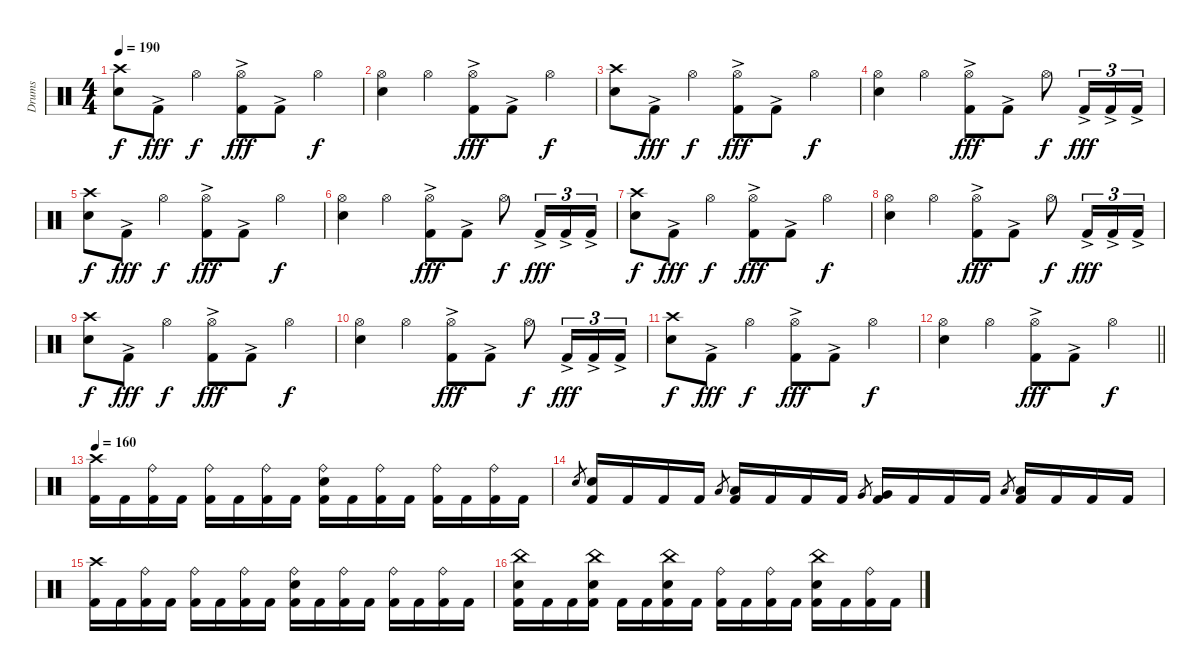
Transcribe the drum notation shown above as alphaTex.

\track ("Drums" "Drums") {instrument percussion}
\staff {score}
\articulation defaults
\ts (4 4)
\tempo 190
\clef neutral
\ks c
("Crash high (hit)" "Snare (hit) 2").8{dy f} "Kick (hit) 2"{ac}.8{dy fff} "Hi-Hat (open)".4{dy f} ("Hi-Hat (open)" "Kick (hit) 2"{ac}).8{dy fff} "Kick (hit) 2"{ac}.8 "Hi-Hat (open)".4{dy f} |
("Hi-Hat (open)" "Snare (hit) 2").4 "Hi-Hat (open)".4 ("Hi-Hat (open)" "Kick (hit) 2"{ac}).8{dy fff} "Kick (hit) 2"{ac}.8 "Hi-Hat (open)".4{dy f} |
("Crash high (hit)" "Snare (hit) 2").8 "Kick (hit) 2"{ac}.8{dy fff} "Hi-Hat (open)".4{dy f} ("Hi-Hat (open)" "Kick (hit) 2"{ac}).8{dy fff} "Kick (hit) 2"{ac}.8 "Hi-Hat (open)".4{dy f} |
("Hi-Hat (open)" "Snare (hit) 2").4 "Hi-Hat (open)".4 ("Hi-Hat (open)" "Kick (hit) 2"{ac}).8{dy fff} "Kick (hit) 2"{ac}.8 "Hi-Hat (open)".8{dy f} "Kick (hit) 2"{ac}.16{tu (3 2) dy fff} "Kick (hit) 2"{ac}.16{tu (3 2)} "Kick (hit) 2"{ac}.16{tu (3 2)} |
("Crash high (hit)" "Snare (hit) 2").8{dy f} "Kick (hit) 2"{ac}.8{dy fff} "Hi-Hat (open)".4{dy f} ("Hi-Hat (open)" "Kick (hit) 2"{ac}).8{dy fff} "Kick (hit) 2"{ac}.8 "Hi-Hat (open)".4{dy f} |
("Hi-Hat (open)" "Snare (hit) 2").4 "Hi-Hat (open)".4 ("Hi-Hat (open)" "Kick (hit) 2"{ac}).8{dy fff} "Kick (hit) 2"{ac}.8 "Hi-Hat (open)".8{dy f} "Kick (hit) 2"{ac}.16{tu (3 2) dy fff} "Kick (hit) 2"{ac}.16{tu (3 2)} "Kick (hit) 2"{ac}.16{tu (3 2)} |
("Crash high (hit)" "Snare (hit) 2").8{dy f} "Kick (hit) 2"{ac}.8{dy fff} "Hi-Hat (open)".4{dy f} ("Hi-Hat (open)" "Kick (hit) 2"{ac}).8{dy fff} "Kick (hit) 2"{ac}.8 "Hi-Hat (open)".4{dy f} |
("Hi-Hat (open)" "Snare (hit) 2").4 "Hi-Hat (open)".4 ("Hi-Hat (open)" "Kick (hit) 2"{ac}).8{dy fff} "Kick (hit) 2"{ac}.8 "Hi-Hat (open)".8{dy f} "Kick (hit) 2"{ac}.16{tu (3 2) dy fff} "Kick (hit) 2"{ac}.16{tu (3 2)} "Kick (hit) 2"{ac}.16{tu (3 2)} |
("Crash high (hit)" "Snare (hit) 2").8{dy f} "Kick (hit) 2"{ac}.8{dy fff} "Hi-Hat (open)".4{dy f} ("Hi-Hat (open)" "Kick (hit) 2"{ac}).8{dy fff} "Kick (hit) 2"{ac}.8 "Hi-Hat (open)".4{dy f} |
("Hi-Hat (open)" "Snare (hit) 2").4 "Hi-Hat (open)".4 ("Hi-Hat (open)" "Kick (hit) 2"{ac}).8{dy fff} "Kick (hit) 2"{ac}.8 "Hi-Hat (open)".8{dy f} "Kick (hit) 2"{ac}.16{tu (3 2) dy fff} "Kick (hit) 2"{ac}.16{tu (3 2)} "Kick (hit) 2"{ac}.16{tu (3 2)} |
("Crash high (hit)" "Snare (hit) 2").8{dy f} "Kick (hit) 2"{ac}.8{dy fff} "Hi-Hat (open)".4{dy f} ("Hi-Hat (open)" "Kick (hit) 2"{ac}).8{dy fff} "Kick (hit) 2"{ac}.8 "Hi-Hat (open)".4{dy f} |
\barLineRight lightlight
("Hi-Hat (open)" "Snare (hit) 2").4 "Hi-Hat (open)".4 ("Hi-Hat (open)" "Kick (hit) 2"{ac}).8{dy fff} "Kick (hit) 2"{ac}.8 "Hi-Hat (open)".4{dy f} |
\tempo 160
("Crash high (hit)" "Kick (hit) 2").16 "Kick (hit) 2".16 ("Ride (bell)" "Kick (hit) 2").16 "Kick (hit) 2".16 ("Ride (bell)" "Kick (hit) 2").16 "Kick (hit) 2".16 ("Ride (bell)" "Kick (hit) 2").16 "Kick (hit) 2".16 ("Ride (bell)" "Snare (hit) 2" "Kick (hit) 2").16 "Kick (hit) 2".16 ("Ride (bell)" "Kick (hit) 2").16 "Kick (hit) 2".16 ("Ride (bell)" "Kick (hit) 2").16 "Kick (hit) 2".16 ("Ride (bell)" "Kick (hit) 2").16 "Kick (hit) 2".16 |
"Snare (hit) 2".8{gr} ("Snare (hit) 2" "Kick (hit) 2").16 "Kick (hit) 2".16 "Kick (hit) 2".16 "Kick (hit) 2".16 "Low Tom (hit)".8{gr} ("Low Tom (hit)" "Kick (hit) 2").16 "Kick (hit) 2".16 "Kick (hit) 2".16 "Kick (hit) 2".16 "Very Low Tom (hit)".8{gr} ("Very Low Tom (hit)" "Kick (hit) 2").16 "Kick (hit) 2".16 "Kick (hit) 2".16 "Kick (hit) 2".16 "Low Floor Tom (hit)".8{gr} ("Low Floor Tom (hit)" "Kick (hit) 2").16 "Kick (hit) 2".16 "Kick (hit) 2".16 "Kick (hit) 2".16 |
("Crash high (hit)" "Kick (hit) 2").16 "Kick (hit) 2".16 ("Ride (bell)" "Kick (hit) 2").16 "Kick (hit) 2".16 ("Ride (bell)" "Kick (hit) 2").16 "Kick (hit) 2".16 ("Ride (bell)" "Kick (hit) 2").16 "Kick (hit) 2".16 ("Ride (bell)" "Snare (hit) 2" "Kick (hit) 2").16 "Kick (hit) 2".16 ("Ride (bell)" "Kick (hit) 2").16 "Kick (hit) 2".16 ("Ride (bell)" "Kick (hit) 2").16 "Kick (hit) 2".16 ("Ride (bell)" "Kick (hit) 2").16 "Kick (hit) 2".16 |
("China (hit)" "Snare (hit) 2" "Kick (hit) 2").16 "Kick (hit) 2".16 "Kick (hit) 2".16 ("China (hit)" "Snare (hit) 2" "Kick (hit) 2").16 "Kick (hit) 2".16 "Kick (hit) 2".16 ("China (hit)" "Snare (hit) 2" "Kick (hit) 2").16 "Kick (hit) 2".16 ("Ride (bell)" "Kick (hit) 2").16 "Kick (hit) 2".16 ("Ride (bell)" "Kick (hit) 2").16 "Kick (hit) 2".16 ("China (hit)" "Snare (hit) 2" "Kick (hit) 2").16 "Kick (hit) 2".16 ("Ride (bell)" "Kick (hit) 2").16 "Kick (hit) 2".16
